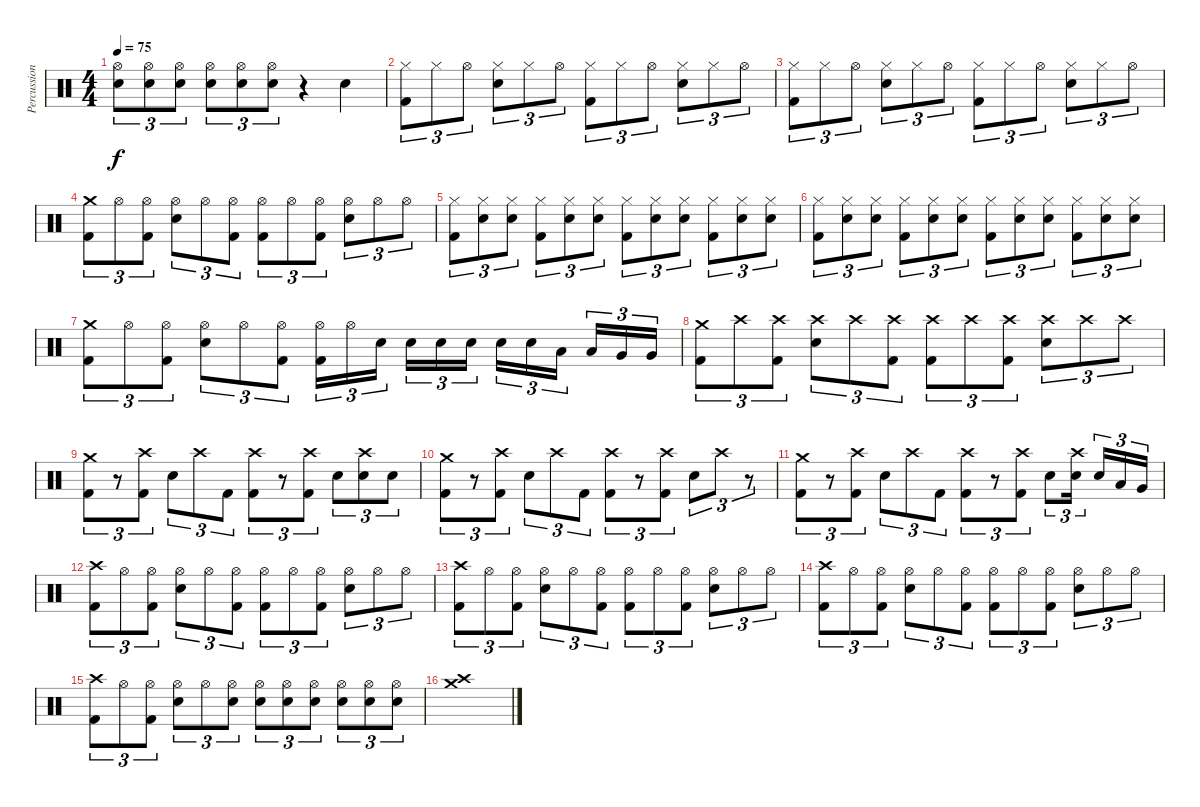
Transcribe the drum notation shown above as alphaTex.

\track ("Percussions" "Percussion") {instrument percussion}
\staff {score}
\articulation defaults
\ts (4 4)
\tempo 75
\clef neutral
\ks c
("Hi-Hat (open)" "Electric Snare (hit)").8{tu (3 2) dy f} ("Hi-Hat (open)" "Electric Snare (hit)").8{tu (3 2)} ("Hi-Hat (open)" "Electric Snare (hit)").8{tu (3 2)} ("Hi-Hat (open)" "Electric Snare (hit)").8{tu (3 2)} ("Hi-Hat (open)" "Electric Snare (hit)").8{tu (3 2)} ("Hi-Hat (open)" "Electric Snare (hit)").8{tu (3 2)} r.4 "Electric Snare (hit)".4 |
("Hi-Hat (closed)" "Kick (hit) 2").8{tu (3 2)} "Hi-Hat (closed)".8{tu (3 2)} "Hi-Hat (open)".8{tu (3 2)} ("Hi-Hat (closed)" "Electric Snare (hit)").8{tu (3 2)} "Hi-Hat (closed)".8{tu (3 2)} "Hi-Hat (open)".8{tu (3 2)} ("Hi-Hat (closed)" "Kick (hit) 2").8{tu (3 2)} "Hi-Hat (closed)".8{tu (3 2)} "Hi-Hat (open)".8{tu (3 2)} ("Hi-Hat (closed)" "Electric Snare (hit)").8{tu (3 2)} "Hi-Hat (closed)".8{tu (3 2)} "Hi-Hat (open)".8{tu (3 2)} |
("Hi-Hat (closed)" "Kick (hit) 2").8{tu (3 2)} "Hi-Hat (closed)".8{tu (3 2)} "Hi-Hat (open)".8{tu (3 2)} ("Hi-Hat (closed)" "Electric Snare (hit)").8{tu (3 2)} "Hi-Hat (closed)".8{tu (3 2)} "Hi-Hat (open)".8{tu (3 2)} ("Hi-Hat (closed)" "Kick (hit) 2").8{tu (3 2)} "Hi-Hat (closed)".8{tu (3 2)} "Hi-Hat (open)".8{tu (3 2)} ("Hi-Hat (closed)" "Electric Snare (hit)").8{tu (3 2)} "Hi-Hat (closed)".8{tu (3 2)} "Hi-Hat (open)".8{tu (3 2)} |
("Crash medium (hit)" "Kick (hit) 2").8{tu (3 2)} "Hi-Hat (open)".8{tu (3 2)} ("Hi-Hat (open)" "Kick (hit) 2").8{tu (3 2)} ("Hi-Hat (open)" "Electric Snare (hit)").8{tu (3 2)} "Hi-Hat (open)".8{tu (3 2)} ("Hi-Hat (open)" "Kick (hit) 2").8{tu (3 2)} ("Hi-Hat (open)" "Kick (hit) 2").8{tu (3 2)} "Hi-Hat (open)".8{tu (3 2)} ("Hi-Hat (open)" "Kick (hit) 2").8{tu (3 2)} ("Hi-Hat (open)" "Electric Snare (hit)").8{tu (3 2)} "Hi-Hat (open)".8{tu (3 2)} "Hi-Hat (open)".8{tu (3 2)} |
("Hi-Hat (closed)" "Kick (hit) 2").8{tu (3 2)} ("Hi-Hat (closed)" "Electric Snare (hit)").8{tu (3 2)} ("Hi-Hat (closed)" "Electric Snare (hit)").8{tu (3 2)} ("Hi-Hat (closed)" "Kick (hit) 2").8{tu (3 2)} ("Hi-Hat (closed)" "Electric Snare (hit)").8{tu (3 2)} ("Hi-Hat (closed)" "Electric Snare (hit)").8{tu (3 2)} ("Hi-Hat (closed)" "Kick (hit) 2").8{tu (3 2)} ("Hi-Hat (closed)" "Electric Snare (hit)").8{tu (3 2)} ("Hi-Hat (closed)" "Electric Snare (hit)").8{tu (3 2)} ("Hi-Hat (closed)" "Kick (hit) 2").8{tu (3 2)} ("Hi-Hat (closed)" "Electric Snare (hit)").8{tu (3 2)} ("Hi-Hat (closed)" "Electric Snare (hit)").8{tu (3 2)} |
("Hi-Hat (closed)" "Kick (hit) 2").8{tu (3 2)} ("Hi-Hat (closed)" "Electric Snare (hit)").8{tu (3 2)} ("Hi-Hat (closed)" "Electric Snare (hit)").8{tu (3 2)} ("Hi-Hat (closed)" "Kick (hit) 2").8{tu (3 2)} ("Hi-Hat (closed)" "Electric Snare (hit)").8{tu (3 2)} ("Hi-Hat (closed)" "Electric Snare (hit)").8{tu (3 2)} ("Hi-Hat (closed)" "Kick (hit) 2").8{tu (3 2)} ("Hi-Hat (closed)" "Electric Snare (hit)").8{tu (3 2)} ("Hi-Hat (closed)" "Electric Snare (hit)").8{tu (3 2)} ("Hi-Hat (closed)" "Kick (hit) 2").8{tu (3 2)} ("Hi-Hat (closed)" "Electric Snare (hit)").8{tu (3 2)} ("Hi-Hat (closed)" "Electric Snare (hit)").8{tu (3 2)} |
("Crash medium (hit)" "Kick (hit) 2").8{tu (3 2)} "Hi-Hat (open)".8{tu (3 2)} ("Hi-Hat (open)" "Kick (hit) 2").8{tu (3 2)} ("Hi-Hat (open)" "Electric Snare (hit)").8{tu (3 2)} "Hi-Hat (open)".8{tu (3 2)} ("Hi-Hat (open)" "Kick (hit) 2").8{tu (3 2)} ("Hi-Hat (open)" "Kick (hit) 2").16{tu (3 2)} "Hi-Hat (open)".16{tu (3 2)} "Electric Snare (hit)".16{tu (3 2)} "Electric Snare (hit)".16{tu (3 2)} "Electric Snare (hit)".16{tu (3 2)} "Electric Snare (hit)".16{tu (3 2)} "Electric Snare (hit)".16{tu (3 2)} "Electric Snare (hit)".16{tu (3 2)} "Low Tom (hit)".16{tu (3 2)} "Low Tom (hit)".16{tu (3 2)} "Very Low Tom (hit)".16{tu (3 2)} "Very Low Tom (hit)".16{tu (3 2)} |
("Crash medium (hit)" "Kick (hit) 2").8{tu (3 2)} "Crash high (hit)".8{tu (3 2)} ("Crash high (hit)" "Kick (hit) 2").8{tu (3 2)} ("Crash high (hit)" "Electric Snare (hit)").8{tu (3 2)} "Crash high (hit)".8{tu (3 2)} ("Crash high (hit)" "Kick (hit) 2").8{tu (3 2)} ("Crash high (hit)" "Kick (hit) 2").8{tu (3 2)} "Crash high (hit)".8{tu (3 2)} ("Crash high (hit)" "Kick (hit) 2").8{tu (3 2)} ("Crash high (hit)" "Electric Snare (hit)").8{tu (3 2)} "Crash high (hit)".8{tu (3 2)} "Crash high (hit)".8{tu (3 2)} |
("Crash medium (hit)" "Kick (hit) 2").8{tu (3 2)} r.8{tu (3 2)} ("Crash high (hit)" "Kick (hit) 2").8{tu (3 2)} "Electric Snare (hit)".8{tu (3 2)} "Crash high (hit)".8{tu (3 2)} "Kick (hit) 2".8{tu (3 2)} ("Crash high (hit)" "Kick (hit) 2").8{tu (3 2)} r.8{tu (3 2)} ("Crash high (hit)" "Kick (hit) 2").8{tu (3 2)} "Electric Snare (hit)".8{tu (3 2)} ("Crash high (hit)" "Electric Snare (hit)").8{tu (3 2)} "Electric Snare (hit)".8{tu (3 2)} |
("Crash medium (hit)" "Kick (hit) 2").8{tu (3 2)} r.8{tu (3 2)} ("Crash high (hit)" "Kick (hit) 2").8{tu (3 2)} "Electric Snare (hit)".8{tu (3 2)} "Crash high (hit)".8{tu (3 2)} "Kick (hit) 2".8{tu (3 2)} ("Crash high (hit)" "Kick (hit) 2").8{tu (3 2)} r.8{tu (3 2)} ("Crash high (hit)" "Kick (hit) 2").8{tu (3 2)} "Electric Snare (hit)".8{tu (3 2)} "Crash high (hit)".8{tu (3 2)} r.8{tu (3 2)} |
("Crash medium (hit)" "Kick (hit) 2").8{tu (3 2)} r.8{tu (3 2)} ("Crash high (hit)" "Kick (hit) 2").8{tu (3 2)} "Electric Snare (hit)".8{tu (3 2)} "Crash high (hit)".8{tu (3 2)} "Kick (hit) 2".8{tu (3 2)} ("Crash high (hit)" "Kick (hit) 2").8{tu (3 2)} r.8{tu (3 2)} ("Crash high (hit)" "Kick (hit) 2").8{tu (3 2)} "Electric Snare (hit)".8{tu (3 2)} ("Crash high (hit)" "Electric Snare (hit)").16{tu (3 2)} "Electric Snare (hit)".16{tu (3 2)} "Low Tom (hit)".16{tu (3 2)} "Very Low Tom (hit)".16{tu (3 2)} |
("Crash high (hit)" "Kick (hit) 2").8{tu (3 2)} "Hi-Hat (open)".8{tu (3 2)} ("Hi-Hat (open)" "Kick (hit) 2").8{tu (3 2)} ("Hi-Hat (open)" "Electric Snare (hit)").8{tu (3 2)} "Hi-Hat (open)".8{tu (3 2)} ("Hi-Hat (open)" "Kick (hit) 2").8{tu (3 2)} ("Hi-Hat (open)" "Kick (hit) 2").8{tu (3 2)} "Hi-Hat (open)".8{tu (3 2)} ("Hi-Hat (open)" "Kick (hit) 2").8{tu (3 2)} ("Hi-Hat (open)" "Electric Snare (hit)").8{tu (3 2)} "Hi-Hat (open)".8{tu (3 2)} "Hi-Hat (open)".8{tu (3 2)} |
("Crash high (hit)" "Kick (hit) 2").8{tu (3 2)} "Hi-Hat (open)".8{tu (3 2)} ("Hi-Hat (open)" "Kick (hit) 2").8{tu (3 2)} ("Hi-Hat (open)" "Electric Snare (hit)").8{tu (3 2)} "Hi-Hat (open)".8{tu (3 2)} ("Hi-Hat (open)" "Kick (hit) 2").8{tu (3 2)} ("Hi-Hat (open)" "Kick (hit) 2").8{tu (3 2)} "Hi-Hat (open)".8{tu (3 2)} ("Hi-Hat (open)" "Kick (hit) 2").8{tu (3 2)} ("Hi-Hat (open)" "Electric Snare (hit)").8{tu (3 2)} "Hi-Hat (open)".8{tu (3 2)} "Hi-Hat (open)".8{tu (3 2)} |
("Crash high (hit)" "Kick (hit) 2").8{tu (3 2)} "Hi-Hat (open)".8{tu (3 2)} ("Hi-Hat (open)" "Kick (hit) 2").8{tu (3 2)} ("Hi-Hat (open)" "Electric Snare (hit)").8{tu (3 2)} "Hi-Hat (open)".8{tu (3 2)} ("Hi-Hat (open)" "Kick (hit) 2").8{tu (3 2)} ("Hi-Hat (open)" "Kick (hit) 2").8{tu (3 2)} "Hi-Hat (open)".8{tu (3 2)} ("Hi-Hat (open)" "Kick (hit) 2").8{tu (3 2)} ("Hi-Hat (open)" "Electric Snare (hit)").8{tu (3 2)} "Hi-Hat (open)".8{tu (3 2)} "Hi-Hat (open)".8{tu (3 2)} |
("Crash high (hit)" "Kick (hit) 2").8{tu (3 2)} "Hi-Hat (open)".8{tu (3 2)} ("Hi-Hat (open)" "Kick (hit) 2").8{tu (3 2)} ("Hi-Hat (open)" "Electric Snare (hit)").8{tu (3 2)} "Hi-Hat (open)".8{tu (3 2)} ("Hi-Hat (open)" "Electric Snare (hit)").8{tu (3 2)} ("Hi-Hat (open)" "Electric Snare (hit)").8{tu (3 2)} ("Hi-Hat (open)" "Electric Snare (hit)").8{tu (3 2)} ("Hi-Hat (open)" "Electric Snare (hit)").8{tu (3 2)} ("Hi-Hat (open)" "Electric Snare (hit)").8{tu (3 2)} ("Hi-Hat (open)" "Electric Snare (hit)").8{tu (3 2)} ("Hi-Hat (open)" "Electric Snare (hit)").8{tu (3 2)} |
("Crash medium (hit)" "Crash high (hit)").1
